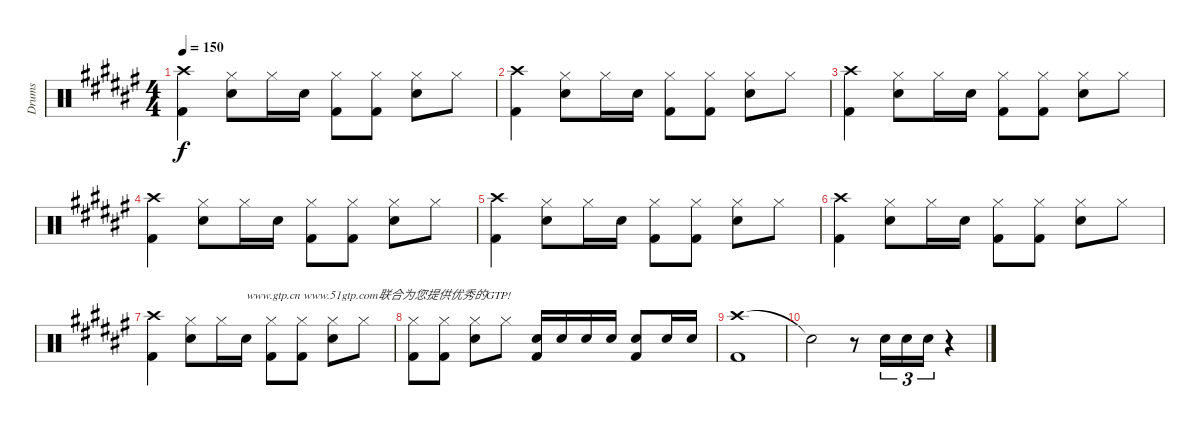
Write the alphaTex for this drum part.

\track ("Drums" "Drums") {instrument percussion}
\staff {score}
\articulation defaults
\ts (4 4)
\tempo 150
\clef neutral
\ks f#
("Crash high (hit)" "Kick (hit) 2").4{dy f} ("Hi-Hat (closed)" "Snare (hit) 2").8 "Hi-Hat (closed)".16 "Snare (hit) 2".16 ("Hi-Hat (closed)" "Kick (hit) 2").8 ("Hi-Hat (closed)" "Kick (hit) 2").8 ("Hi-Hat (closed)" "Snare (hit) 2").8 "Hi-Hat (closed)".8 |
("Crash high (hit)" "Kick (hit) 2").4 ("Hi-Hat (closed)" "Snare (hit) 2").8 "Hi-Hat (closed)".16 "Snare (hit) 2".16 ("Hi-Hat (closed)" "Kick (hit) 2").8 ("Hi-Hat (closed)" "Kick (hit) 2").8 ("Hi-Hat (closed)" "Snare (hit) 2").8 "Hi-Hat (closed)".8 |
("Crash high (hit)" "Kick (hit) 2").4 ("Hi-Hat (closed)" "Snare (hit) 2").8 "Hi-Hat (closed)".16 "Snare (hit) 2".16 ("Hi-Hat (closed)" "Kick (hit) 2").8 ("Hi-Hat (closed)" "Kick (hit) 2").8 ("Hi-Hat (closed)" "Snare (hit) 2").8 "Hi-Hat (closed)".8 |
("Crash high (hit)" "Kick (hit) 2").4 ("Hi-Hat (closed)" "Snare (hit) 2").8 "Hi-Hat (closed)".16 "Snare (hit) 2".16 ("Hi-Hat (closed)" "Kick (hit) 2").8 ("Hi-Hat (closed)" "Kick (hit) 2").8 ("Hi-Hat (closed)" "Snare (hit) 2").8 "Hi-Hat (closed)".8 |
("Crash high (hit)" "Kick (hit) 2").4 ("Hi-Hat (closed)" "Snare (hit) 2").8 "Hi-Hat (closed)".16 "Snare (hit) 2".16 ("Hi-Hat (closed)" "Kick (hit) 2").8 ("Hi-Hat (closed)" "Kick (hit) 2").8 ("Hi-Hat (closed)" "Snare (hit) 2").8 "Hi-Hat (closed)".8 |
("Crash high (hit)" "Kick (hit) 2").4 ("Hi-Hat (closed)" "Snare (hit) 2").8 "Hi-Hat (closed)".16 "Snare (hit) 2".16 ("Hi-Hat (closed)" "Kick (hit) 2").8 ("Hi-Hat (closed)" "Kick (hit) 2").8 ("Hi-Hat (closed)" "Snare (hit) 2").8 "Hi-Hat (closed)".8 |
("Crash high (hit)" "Kick (hit) 2").4 ("Hi-Hat (closed)" "Snare (hit) 2").8 "Hi-Hat (closed)".16 "Snare (hit) 2".16{txt "www.gtp.cn www.51gtp.com联合为您提供优秀的GTP!"} ("Hi-Hat (closed)" "Kick (hit) 2").8 ("Hi-Hat (closed)" "Kick (hit) 2").8 ("Hi-Hat (closed)" "Snare (hit) 2").8 "Hi-Hat (closed)".8 |
("Hi-Hat (closed)" "Kick (hit) 2").8 ("Hi-Hat (closed)" "Kick (hit) 2").8 ("Hi-Hat (closed)" "Snare (hit) 2").8 "Hi-Hat (closed)".8 ("Snare (hit) 2" "Kick (hit) 2").16 "Snare (hit) 2".16 "Snare (hit) 2".16 "Snare (hit) 2".16 ("Snare (hit) 2" "Kick (hit) 2").8 "Snare (hit) 2".16 "Snare (hit) 2".16 |
("Crash high (hit)" "Kick (hit) 2").1 |
"Snare (hit)"{t}.2 r.8 "Snare (hit) 2".16{tu (3 2)} "Snare (hit) 2".16{tu (3 2)} "Snare (hit) 2".16{tu (3 2)} r.4
